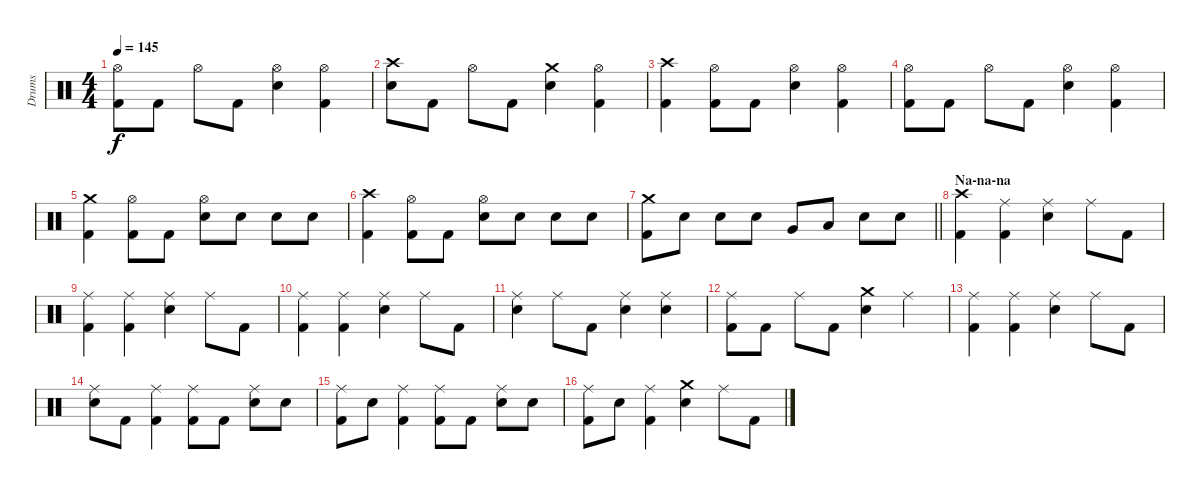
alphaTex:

\track ("Drums" "Drums") {instrument percussion}
\staff {score}
\articulation defaults
\ts (4 4)
\tempo 145
\clef neutral
\ks c
("Hi-Hat (open)" "Kick (hit) 2").8{dy f} "Kick (hit) 2".8 "Hi-Hat (open)".8 "Kick (hit) 2".8 ("Hi-Hat (open)" "Snare (hit) 2").4 ("Hi-Hat (open)" "Kick (hit) 2").4 |
("Crash high (hit)" "Snare (hit) 2").8 "Kick (hit) 2".8 "Hi-Hat (open)".8 "Kick (hit) 2".8 ("Crash medium (hit)" "Snare (hit) 2").4 ("Hi-Hat (open)" "Kick (hit) 2").4 |
("Crash high (hit)" "Kick (hit) 2").4 ("Hi-Hat (open)" "Kick (hit) 2").8 "Kick (hit) 2".8 ("Hi-Hat (open)" "Snare (hit) 2").4 ("Hi-Hat (open)" "Kick (hit) 2").4 |
("Hi-Hat (open)" "Kick (hit) 2").8 "Kick (hit) 2".8 "Hi-Hat (open)".8 "Kick (hit) 2".8 ("Hi-Hat (open)" "Snare (hit) 2").4 ("Hi-Hat (open)" "Kick (hit) 2").4 |
("Crash medium (hit)" "Kick (hit) 2").4 ("Hi-Hat (open)" "Kick (hit) 2").8 "Kick (hit) 2".8 ("Hi-Hat (open)" "Snare (hit) 2").8 "Snare (hit) 2".8 "Snare (hit) 2".8 "Snare (hit) 2".8 |
("Crash high (hit)" "Kick (hit) 2").4 ("Hi-Hat (open)" "Kick (hit) 2").8 "Kick (hit) 2".8 ("Hi-Hat (open)" "Snare (hit) 2").8 "Snare (hit) 2".8 "Snare (hit) 2".8 "Snare (hit) 2".8 |
\barLineRight lightlight
("Crash medium (hit)" "Kick (hit) 2").8 "Snare (hit) 2".8 "Snare (hit) 2".8 "Snare (hit) 2".8 "Very Low Tom (hit)".8 "Low Floor Tom (hit)".8 "Snare (hit) 2".8 "Snare (hit) 2".8 |
\section ("" "Na-na-na")
("Crash high (hit)" "Kick (hit) 2").4 ("Ride (middle)" "Kick (hit) 2").4 ("Ride (middle)" "Snare (hit) 2").4 "Ride (middle)".8 "Kick (hit) 2".8 |
("Ride (middle)" "Kick (hit) 2").4 ("Ride (middle)" "Kick (hit) 2").4 ("Ride (middle)" "Snare (hit) 2").4 "Ride (middle)".8 "Kick (hit) 2".8 |
("Ride (middle)" "Kick (hit) 2").4 ("Ride (middle)" "Kick (hit) 2").4 ("Ride (middle)" "Snare (hit) 2").4 "Ride (middle)".8 "Kick (hit) 2".8 |
("Ride (middle)" "Snare (hit) 2").4 "Ride (middle)".8 "Kick (hit) 2".8 ("Ride (middle)" "Snare (hit) 2").4 ("Ride (middle)" "Snare (hit) 2").4 |
("Ride (middle)" "Kick (hit) 2").8 "Kick (hit) 2".8 "Ride (middle)".8 "Kick (hit) 2".8 ("Crash medium (hit)" "Snare (hit) 2").4 "Ride (middle)".4 |
("Ride (middle)" "Kick (hit) 2").4 ("Ride (middle)" "Kick (hit) 2").4 ("Ride (middle)" "Snare (hit) 2").4 "Ride (middle)".8 "Kick (hit) 2".8 |
("Ride (middle)" "Snare (hit) 2").8 "Kick (hit) 2".8 ("Ride (middle)" "Kick (hit) 2").4 ("Ride (middle)" "Kick (hit) 2").8 "Kick (hit) 2".8 ("Ride (middle)" "Snare (hit) 2").8 "Snare (hit) 2".8 |
("Ride (middle)" "Kick (hit) 2").8 "Snare (hit) 2".8 ("Ride (middle)" "Kick (hit) 2").4 ("Ride (middle)" "Kick (hit) 2").8 "Kick (hit) 2".8 ("Ride (middle)" "Snare (hit) 2").8 "Snare (hit) 2".8 |
("Ride (middle)" "Kick (hit) 2").8 "Snare (hit) 2".8 ("Ride (middle)" "Kick (hit) 2").4 ("Crash medium (hit)" "Snare (hit) 2").4 "Ride (middle)".8 "Kick (hit) 2".8
